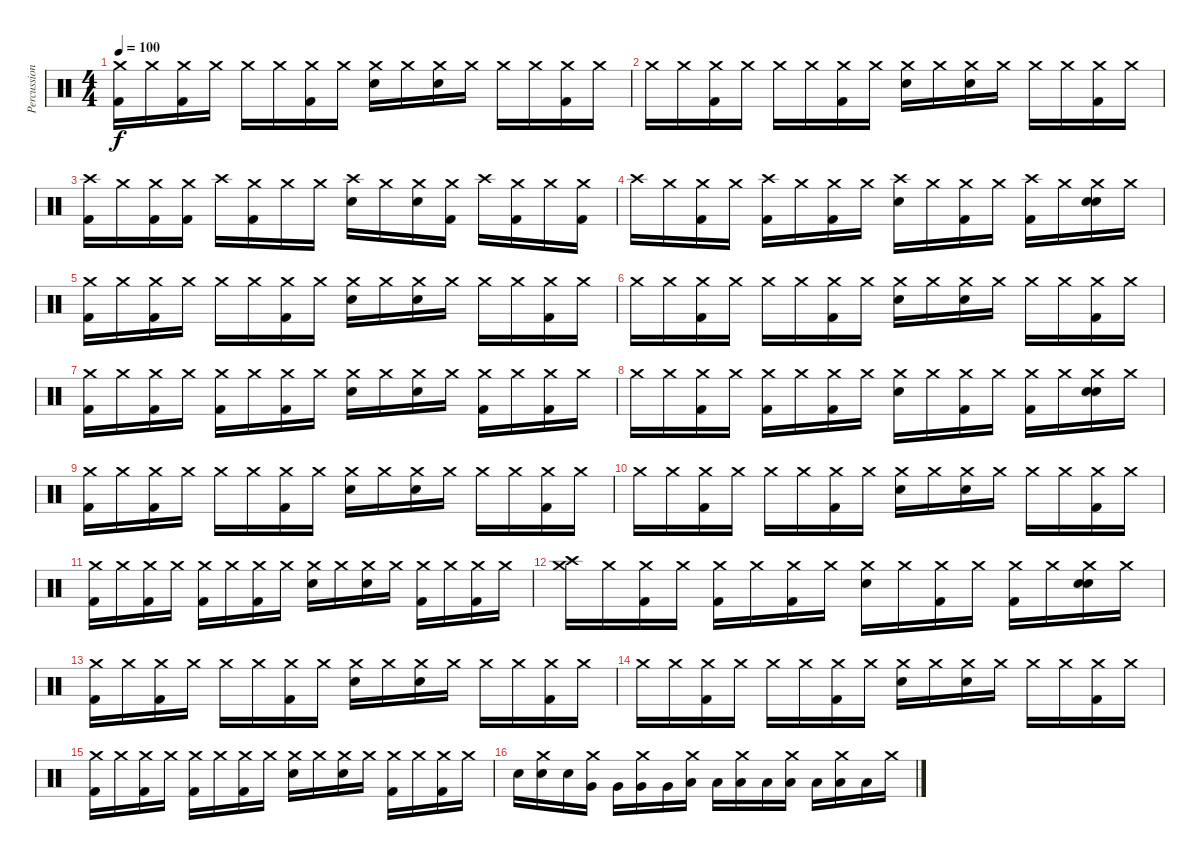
\track ("Percussion" "Percussion") {instrument percussion}
\staff {score}
\articulation defaults
\ts (4 4)
\tempo 100
\clef neutral
\ks c
("Crash medium (hit)" "Kick (hit) 2").16{dy f} "Crash medium (hit)"{x}.16 ("Crash medium (hit)"{x} "Kick (hit) 2").16 "Crash medium (hit)"{x}.16 "Crash medium (hit)".16 "Crash medium (hit)"{x}.16 ("Crash medium (hit)"{x} "Kick (hit) 2").16 "Crash medium (hit)"{x}.16 ("Crash medium (hit)" "Electric Snare (hit)").16 "Crash medium (hit)"{x}.16 ("Crash medium (hit)"{x} "Electric Snare (hit)").16 "Crash medium (hit)"{x}.16 "Crash medium (hit)".16 "Crash medium (hit)"{x}.16 ("Crash medium (hit)"{x} "Kick (hit) 2").16 "Crash medium (hit)"{x}.16 |
"Crash medium (hit)".16 "Crash medium (hit)"{x}.16 ("Crash medium (hit)"{x} "Kick (hit) 2").16 "Crash medium (hit)"{x}.16 "Crash medium (hit)".16 "Crash medium (hit)"{x}.16 ("Crash medium (hit)"{x} "Kick (hit) 2").16 "Crash medium (hit)"{x}.16 ("Crash medium (hit)" "Electric Snare (hit)").16 "Crash medium (hit)"{x}.16 ("Crash medium (hit)"{x} "Electric Snare (hit)").16 "Crash medium (hit)"{x}.16 "Crash medium (hit)".16 "Crash medium (hit)"{x}.16 ("Crash medium (hit)"{x} "Kick (hit) 2").16 "Crash medium (hit)"{x}.16 |
("Crash high (hit)" "Kick (hit) 2").16 "Crash medium (hit)"{x}.16 ("Crash medium (hit)"{x} "Kick (hit) 2").16 ("Crash medium (hit)"{x} "Kick (hit) 2").16 "Crash high (hit)".16 ("Crash medium (hit)"{x} "Kick (hit) 2").16 "Crash medium (hit)"{x}.16 "Crash medium (hit)"{x}.16 ("Crash high (hit)" "Electric Snare (hit)").16 "Crash medium (hit)"{x}.16 ("Crash medium (hit)"{x} "Electric Snare (hit)").16 ("Crash medium (hit)"{x} "Kick (hit) 2").16 "Crash high (hit)".16 ("Crash medium (hit)"{x} "Kick (hit) 2").16 "Crash medium (hit)"{x}.16 ("Crash medium (hit)"{x} "Kick (hit) 2").16 |
"Crash high (hit)".16 "Crash medium (hit)"{x}.16 ("Crash medium (hit)"{x} "Kick (hit) 2").16 "Crash medium (hit)"{x}.16 ("Crash high (hit)" "Kick (hit) 2").16 "Crash medium (hit)"{x}.16 ("Crash medium (hit)"{x} "Kick (hit) 2").16 "Crash medium (hit)"{x}.16 ("Crash high (hit)" "Electric Snare (hit)").16 "Crash medium (hit)"{x}.16 ("Crash medium (hit)"{x} "Kick (hit) 2").16 "Crash medium (hit)"{x}.16 ("Crash high (hit)" "Kick (hit) 2").16 "Crash medium (hit)"{x}.16 ("Crash medium (hit)"{x} "Electric Snare (hit)" "Snare (hit) 2").16 "Crash medium (hit)"{x}.16 |
("Crash medium (hit)" "Kick (hit) 2").16 "Crash medium (hit)"{x}.16 ("Crash medium (hit)"{x} "Kick (hit) 2").16 "Crash medium (hit)"{x}.16 "Crash medium (hit)".16 "Crash medium (hit)"{x}.16 ("Crash medium (hit)"{x} "Kick (hit) 2").16 "Crash medium (hit)"{x}.16 ("Crash medium (hit)" "Electric Snare (hit)").16 "Crash medium (hit)"{x}.16 ("Crash medium (hit)"{x} "Electric Snare (hit)").16 "Crash medium (hit)"{x}.16 "Crash medium (hit)".16 "Crash medium (hit)"{x}.16 ("Crash medium (hit)"{x} "Kick (hit) 2").16 "Crash medium (hit)"{x}.16 |
"Crash medium (hit)".16 "Crash medium (hit)"{x}.16 ("Crash medium (hit)"{x} "Kick (hit) 2").16 "Crash medium (hit)"{x}.16 "Crash medium (hit)".16 "Crash medium (hit)"{x}.16 ("Crash medium (hit)"{x} "Kick (hit) 2").16 "Crash medium (hit)"{x}.16 ("Crash medium (hit)" "Electric Snare (hit)").16 "Crash medium (hit)"{x}.16 ("Crash medium (hit)"{x} "Electric Snare (hit)").16 "Crash medium (hit)"{x}.16 "Crash medium (hit)".16 "Crash medium (hit)"{x}.16 ("Crash medium (hit)"{x} "Kick (hit) 2").16 "Crash medium (hit)"{x}.16 |
("Crash medium (hit)" "Kick (hit) 2").16 "Crash medium (hit)"{x}.16 ("Crash medium (hit)"{x} "Kick (hit) 2").16 "Crash medium (hit)"{x}.16 ("Crash medium (hit)" "Kick (hit) 2").16 "Crash medium (hit)"{x}.16 ("Crash medium (hit)"{x} "Kick (hit) 2").16 "Crash medium (hit)"{x}.16 ("Crash medium (hit)" "Electric Snare (hit)").16 "Crash medium (hit)"{x}.16 ("Crash medium (hit)"{x} "Electric Snare (hit)").16 "Crash medium (hit)"{x}.16 ("Crash medium (hit)" "Kick (hit) 2").16 "Crash medium (hit)"{x}.16 ("Crash medium (hit)"{x} "Kick (hit) 2").16 "Crash medium (hit)"{x}.16 |
"Crash medium (hit)".16 "Crash medium (hit)"{x}.16 ("Crash medium (hit)"{x} "Kick (hit) 2").16 "Crash medium (hit)"{x}.16 ("Crash medium (hit)" "Kick (hit) 2").16 "Crash medium (hit)"{x}.16 ("Crash medium (hit)"{x} "Kick (hit) 2").16 "Crash medium (hit)"{x}.16 ("Crash medium (hit)" "Electric Snare (hit)").16 "Crash medium (hit)"{x}.16 ("Crash medium (hit)"{x} "Kick (hit) 2").16 "Crash medium (hit)"{x}.16 ("Crash medium (hit)" "Kick (hit) 2").16 "Crash medium (hit)"{x}.16 ("Crash medium (hit)"{x} "Electric Snare (hit)" "Snare (hit) 2").16 "Crash medium (hit)"{x}.16 |
("Crash medium (hit)" "Kick (hit) 2").16 "Crash medium (hit)"{x}.16 ("Crash medium (hit)"{x} "Kick (hit) 2").16 "Crash medium (hit)"{x}.16 "Crash medium (hit)".16 "Crash medium (hit)"{x}.16 ("Crash medium (hit)"{x} "Kick (hit) 2").16 "Crash medium (hit)"{x}.16 ("Crash medium (hit)" "Electric Snare (hit)").16 "Crash medium (hit)"{x}.16 ("Crash medium (hit)"{x} "Electric Snare (hit)").16 "Crash medium (hit)"{x}.16 "Crash medium (hit)".16 "Crash medium (hit)"{x}.16 ("Crash medium (hit)"{x} "Kick (hit) 2").16 "Crash medium (hit)"{x}.16 |
"Crash medium (hit)".16 "Crash medium (hit)"{x}.16 ("Crash medium (hit)"{x} "Kick (hit) 2").16 "Crash medium (hit)"{x}.16 "Crash medium (hit)".16 "Crash medium (hit)"{x}.16 ("Crash medium (hit)"{x} "Kick (hit) 2").16 "Crash medium (hit)"{x}.16 ("Crash medium (hit)" "Electric Snare (hit)").16 "Crash medium (hit)"{x}.16 ("Crash medium (hit)"{x} "Electric Snare (hit)").16 "Crash medium (hit)"{x}.16 "Crash medium (hit)".16 "Crash medium (hit)"{x}.16 ("Crash medium (hit)"{x} "Kick (hit) 2").16 "Crash medium (hit)"{x}.16 |
("Crash medium (hit)" "Kick (hit) 2").16 "Crash medium (hit)"{x}.16 ("Crash medium (hit)"{x} "Kick (hit) 2").16 "Crash medium (hit)"{x}.16 ("Crash medium (hit)" "Kick (hit) 2").16 "Crash medium (hit)"{x}.16 ("Crash medium (hit)"{x} "Kick (hit) 2").16 "Crash medium (hit)"{x}.16 ("Crash medium (hit)" "Electric Snare (hit)").16 "Crash medium (hit)"{x}.16 ("Crash medium (hit)"{x} "Electric Snare (hit)").16 "Crash medium (hit)"{x}.16 ("Crash medium (hit)" "Kick (hit) 2").16 "Crash medium (hit)"{x}.16 ("Crash medium (hit)"{x} "Kick (hit) 2").16 "Crash medium (hit)"{x}.16 |
("Crash medium (hit)" "Crash high (hit)").16 "Crash medium (hit)"{x}.16 ("Crash medium (hit)"{x} "Kick (hit) 2").16 "Crash medium (hit)"{x}.16 ("Crash medium (hit)" "Kick (hit) 2").16 "Crash medium (hit)"{x}.16 ("Crash medium (hit)"{x} "Kick (hit) 2").16 "Crash medium (hit)"{x}.16 ("Crash medium (hit)" "Electric Snare (hit)").16 "Crash medium (hit)"{x}.16 ("Crash medium (hit)"{x} "Kick (hit) 2").16 "Crash medium (hit)"{x}.16 ("Crash medium (hit)" "Kick (hit) 2").16 "Crash medium (hit)"{x}.16 ("Crash medium (hit)"{x} "Electric Snare (hit)" "Snare (hit) 2").16 "Crash medium (hit)"{x}.16 |
("Crash medium (hit)" "Kick (hit) 2").16 "Crash medium (hit)"{x}.16 ("Crash medium (hit)"{x} "Kick (hit) 2").16 "Crash medium (hit)"{x}.16 "Crash medium (hit)".16 "Crash medium (hit)"{x}.16 ("Crash medium (hit)"{x} "Kick (hit) 2").16 "Crash medium (hit)"{x}.16 ("Crash medium (hit)" "Electric Snare (hit)").16 "Crash medium (hit)"{x}.16 ("Crash medium (hit)"{x} "Electric Snare (hit)").16 "Crash medium (hit)"{x}.16 "Crash medium (hit)".16 "Crash medium (hit)"{x}.16 ("Crash medium (hit)"{x} "Kick (hit) 2").16 "Crash medium (hit)"{x}.16 |
"Crash medium (hit)".16 "Crash medium (hit)"{x}.16 ("Crash medium (hit)"{x} "Kick (hit) 2").16 "Crash medium (hit)"{x}.16 "Crash medium (hit)".16 "Crash medium (hit)"{x}.16 ("Crash medium (hit)"{x} "Kick (hit) 2").16 "Crash medium (hit)"{x}.16 ("Crash medium (hit)" "Electric Snare (hit)").16 "Crash medium (hit)"{x}.16 ("Crash medium (hit)"{x} "Electric Snare (hit)").16 "Crash medium (hit)"{x}.16 "Crash medium (hit)".16 "Crash medium (hit)"{x}.16 ("Crash medium (hit)"{x} "Kick (hit) 2").16 "Crash medium (hit)"{x}.16 |
("Crash medium (hit)" "Kick (hit) 2").16 "Crash medium (hit)"{x}.16 ("Crash medium (hit)"{x} "Kick (hit) 2").16 "Crash medium (hit)"{x}.16 ("Crash medium (hit)" "Kick (hit) 2").16 "Crash medium (hit)"{x}.16 ("Crash medium (hit)"{x} "Kick (hit) 2").16 "Crash medium (hit)"{x}.16 ("Crash medium (hit)" "Electric Snare (hit)").16 "Crash medium (hit)"{x}.16 ("Crash medium (hit)"{x} "Electric Snare (hit)").16 "Crash medium (hit)"{x}.16 ("Crash medium (hit)" "Kick (hit) 2").16 "Crash medium (hit)"{x}.16 ("Crash medium (hit)"{x} "Kick (hit) 2").16 "Crash medium (hit)"{x}.16 |
"Electric Snare (hit)".16 ("Crash medium (hit)"{x} "Electric Snare (hit)").16 "Electric Snare (hit)".16 ("Crash medium (hit)"{x} "Very Low Tom (hit)"{x}).16 "Very Low Tom (hit)".16 ("Crash medium (hit)"{x} "Very Low Tom (hit)").16 "Very Low Tom (hit)".16 ("Crash medium (hit)"{x} "Low Tom (hit)"{x}).16 "Low Tom (hit)".16 ("Crash medium (hit)"{x} "Low Tom (hit)").16 "Low Tom (hit)".16 ("Crash medium (hit)"{x} "Low Floor Tom (hit)"{x}).16 "Low Floor Tom (hit)".16 ("Crash medium (hit)"{x} "Low Floor Tom (hit)").16 "Low Floor Tom (hit)".16 "Crash medium (hit)"{x}.16
